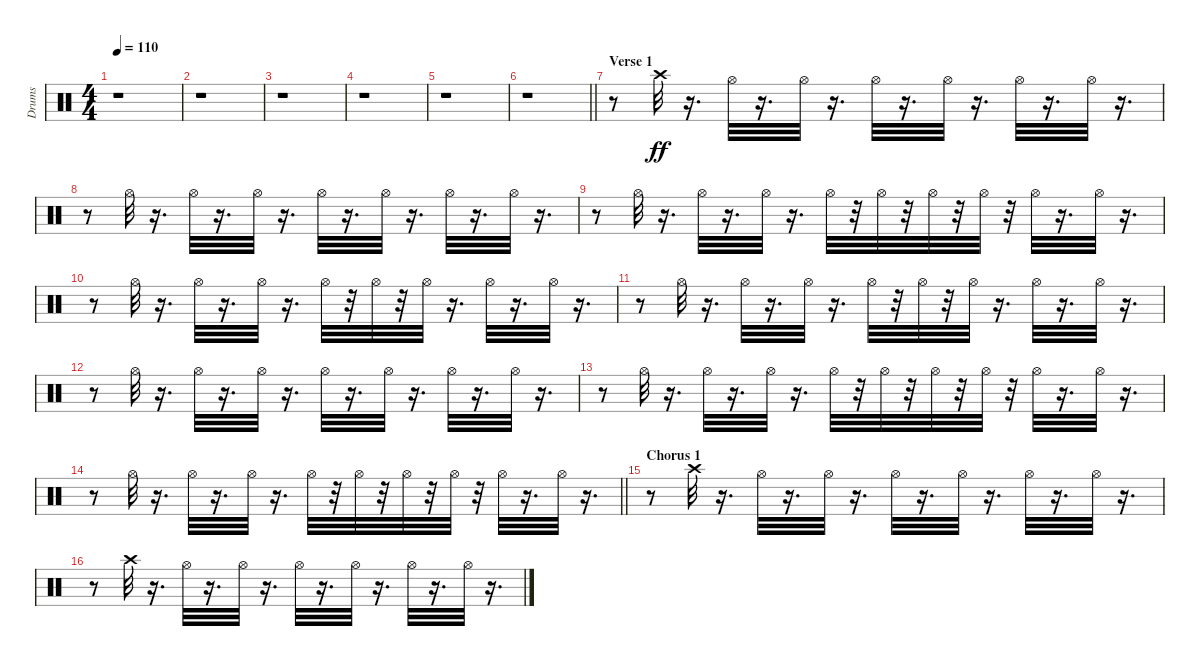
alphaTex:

\track ("Drums" "Drums") {instrument percussion}
\staff {score}
\articulation defaults
\ts (4 4)
\tempo 110
\clef neutral
\ks c
r.1{dy ff} |
r.1 |
r.1 |
r.1 |
r.1 |
\barLineRight lightlight
r.1 |
\section ("" "Verse 1")
r.8 "Crash high (hit)".32 r.16{d} "Hi-Hat (open)".32 r.16{d} "Hi-Hat (open)".32 r.16{d} "Hi-Hat (open)".32 r.16{d} "Hi-Hat (open)".32 r.16{d} "Hi-Hat (open)".32 r.16{d} "Hi-Hat (open)".32 r.16{d} |
r.8 "Hi-Hat (open)".32 r.16{d} "Hi-Hat (open)".32 r.16{d} "Hi-Hat (open)".32 r.16{d} "Hi-Hat (open)".32 r.16{d} "Hi-Hat (open)".32 r.16{d} "Hi-Hat (open)".32 r.16{d} "Hi-Hat (open)".32 r.16{d} |
r.8 "Hi-Hat (open)".32 r.16{d} "Hi-Hat (open)".32 r.16{d} "Hi-Hat (open)".32 r.16{d} "Hi-Hat (open)".32 r.32 "Hi-Hat (open)".32 r.32 "Hi-Hat (open)".32 r.32 "Hi-Hat (open)".32 r.32 "Hi-Hat (open)".32 r.16{d} "Hi-Hat (open)".32 r.16{d} |
r.8 "Hi-Hat (open)".32 r.16{d} "Hi-Hat (open)".32 r.16{d} "Hi-Hat (open)".32 r.16{d} "Hi-Hat (open)".32 r.32 "Hi-Hat (open)".32 r.32 "Hi-Hat (open)".32 r.16{d} "Hi-Hat (open)".32 r.16{d} "Hi-Hat (open)".32 r.16{d} |
r.8 "Hi-Hat (open)".32 r.16{d} "Hi-Hat (open)".32 r.16{d} "Hi-Hat (open)".32 r.16{d} "Hi-Hat (open)".32 r.32 "Hi-Hat (open)".32 r.32 "Hi-Hat (open)".32 r.16{d} "Hi-Hat (open)".32 r.16{d} "Hi-Hat (open)".32 r.16{d} |
r.8 "Hi-Hat (open)".32 r.16{d} "Hi-Hat (open)".32 r.16{d} "Hi-Hat (open)".32 r.16{d} "Hi-Hat (open)".32 r.16{d} "Hi-Hat (open)".32 r.16{d} "Hi-Hat (open)".32 r.16{d} "Hi-Hat (open)".32 r.16{d} |
r.8 "Hi-Hat (open)".32 r.16{d} "Hi-Hat (open)".32 r.16{d} "Hi-Hat (open)".32 r.16{d} "Hi-Hat (open)".32 r.32 "Hi-Hat (open)".32 r.32 "Hi-Hat (open)".32 r.32 "Hi-Hat (open)".32 r.32 "Hi-Hat (open)".32 r.16{d} "Hi-Hat (open)".32 r.16{d} |
\barLineRight lightlight
r.8 "Hi-Hat (open)".32 r.16{d} "Hi-Hat (open)".32 r.16{d} "Hi-Hat (open)".32 r.16{d} "Hi-Hat (open)".32 r.32 "Hi-Hat (open)".32 r.32 "Hi-Hat (open)".32 r.32 "Hi-Hat (open)".32 r.32 "Hi-Hat (open)".32 r.16{d} "Hi-Hat (open)".32 r.16{d} |
\section ("" "Chorus 1")
r.8 "Crash high (hit)".32 r.16{d} "Hi-Hat (open)".32 r.16{d} "Hi-Hat (open)".32 r.16{d} "Hi-Hat (open)".32 r.16{d} "Hi-Hat (open)".32 r.16{d} "Hi-Hat (open)".32 r.16{d} "Hi-Hat (open)".32 r.16{d} |
r.8 "Crash high (hit)".32 r.16{d} "Hi-Hat (open)".32 r.16{d} "Hi-Hat (open)".32 r.16{d} "Hi-Hat (open)".32 r.16{d} "Hi-Hat (open)".32 r.16{d} "Hi-Hat (open)".32 r.16{d} "Hi-Hat (open)".32 r.16{d}
